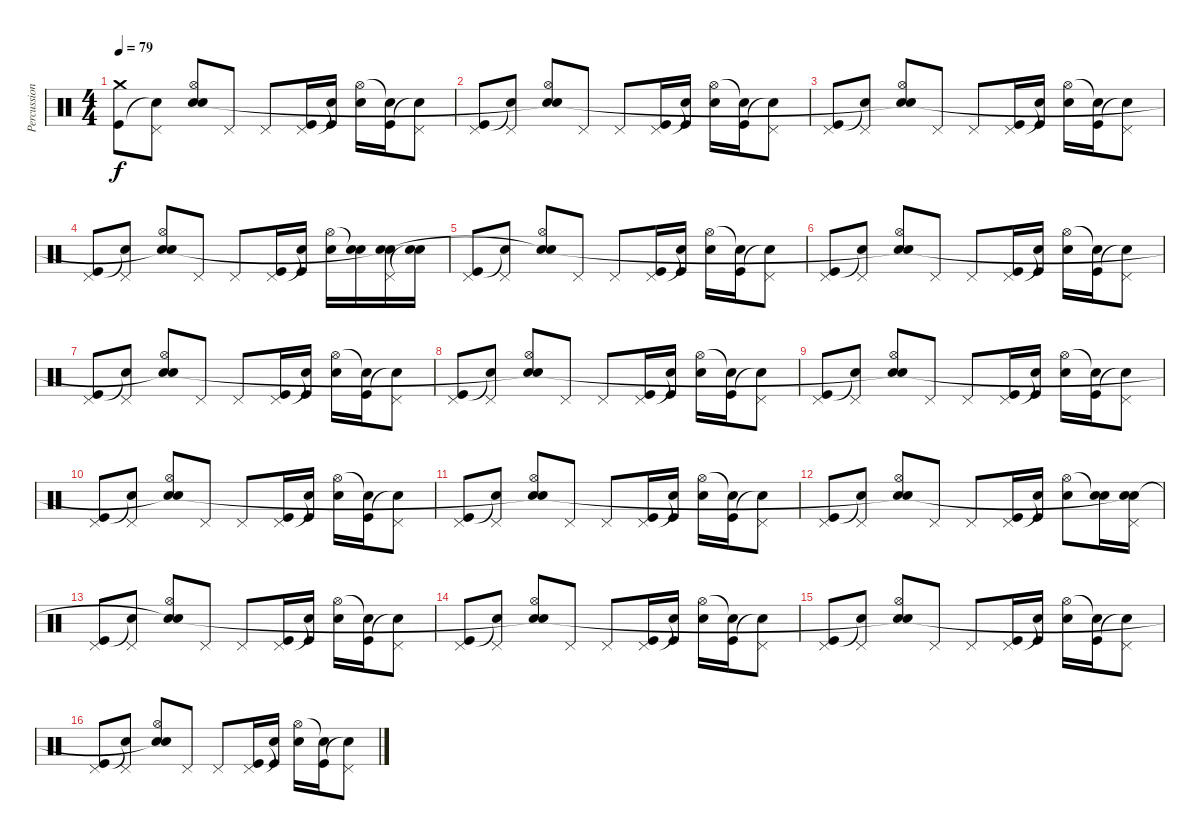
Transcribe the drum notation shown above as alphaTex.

\track ("Percussion" "Percussion") {instrument percussion}
\staff {score}
\articulation defaults
\ts (4 4)
\tempo 79
\clef neutral
\ks c
("Crash medium (hit)" "Kick (hit)").8{dy f} ("Pedal Hi-Hat (hit)" "Snare (hit)"{t}).8 ("Hi-Hat (open)" "Electric Snare (hit)" "Snare (hit)").8 "Pedal Hi-Hat (hit)".8 "Pedal Hi-Hat (hit)".8 ("Pedal Hi-Hat (hit)" "Kick (hit)").16 ("Snare (hit)"{t} "Kick (hit)").16 ("Hi-Hat (open)" "Electric Snare (hit)").16 ("Snare (hit)"{t} "Kick (hit)").16 ("Pedal Hi-Hat (hit)" "Snare (hit)"{t}).8 |
("Pedal Hi-Hat (hit)" "Kick (hit)").8 ("Pedal Hi-Hat (hit)" "Snare (hit)"{t}).8 ("Hi-Hat (open)" "Electric Snare (hit)" "Snare (hit)"{t}).8 "Pedal Hi-Hat (hit)".8 "Pedal Hi-Hat (hit)".8 ("Pedal Hi-Hat (hit)" "Kick (hit)").16 ("Snare (hit)"{t} "Kick (hit)").16 ("Hi-Hat (open)" "Electric Snare (hit)").16 ("Snare (hit)"{t} "Kick (hit)").16 ("Pedal Hi-Hat (hit)" "Snare (hit)"{t}).8 |
("Pedal Hi-Hat (hit)" "Kick (hit)").8 ("Pedal Hi-Hat (hit)" "Snare (hit)"{t}).8 ("Hi-Hat (open)" "Electric Snare (hit)" "Snare (hit)"{t}).8 "Pedal Hi-Hat (hit)".8 "Pedal Hi-Hat (hit)".8 ("Pedal Hi-Hat (hit)" "Kick (hit)").16 ("Snare (hit)"{t} "Kick (hit)").16 ("Hi-Hat (open)" "Electric Snare (hit)").16 ("Snare (hit)"{t} "Kick (hit)").16 ("Pedal Hi-Hat (hit)" "Snare (hit)"{t}).8 |
("Pedal Hi-Hat (hit)" "Kick (hit)").8 ("Pedal Hi-Hat (hit)" "Snare (hit)"{t}).8 ("Hi-Hat (open)" "Electric Snare (hit)" "Snare (hit)"{t}).8 "Pedal Hi-Hat (hit)".8 "Pedal Hi-Hat (hit)".8 ("Pedal Hi-Hat (hit)" "Kick (hit)").16 ("Snare (hit)"{t} "Kick (hit)").16 ("Hi-Hat (open)" "Electric Snare (hit)").16 ("Snare (hit)"{t} "Electric Snare (hit)").16 ("Pedal Hi-Hat (hit)" "Electric Snare (hit)" "Snare (hit)"{t}).16 ("Snare (hit)"{t} "Electric Snare (hit)").16 |
("Pedal Hi-Hat (hit)" "Kick (hit)").8 ("Pedal Hi-Hat (hit)" "Snare (hit)"{t}).8 ("Hi-Hat (open)" "Electric Snare (hit)" "Snare (hit)"{t}).8 "Pedal Hi-Hat (hit)".8 "Pedal Hi-Hat (hit)".8 ("Pedal Hi-Hat (hit)" "Kick (hit)").16 ("Snare (hit)"{t} "Kick (hit)").16 ("Hi-Hat (open)" "Electric Snare (hit)").16 ("Snare (hit)"{t} "Kick (hit)").16 ("Pedal Hi-Hat (hit)" "Snare (hit)"{t}).8 |
("Pedal Hi-Hat (hit)" "Kick (hit)").8 ("Pedal Hi-Hat (hit)" "Snare (hit)"{t}).8 ("Hi-Hat (open)" "Electric Snare (hit)" "Snare (hit)"{t}).8 "Pedal Hi-Hat (hit)".8 "Pedal Hi-Hat (hit)".8 ("Pedal Hi-Hat (hit)" "Kick (hit)").16 ("Snare (hit)"{t} "Kick (hit)").16 ("Hi-Hat (open)" "Electric Snare (hit)").16 ("Snare (hit)"{t} "Kick (hit)").16 ("Pedal Hi-Hat (hit)" "Snare (hit)"{t}).8 |
("Pedal Hi-Hat (hit)" "Kick (hit)").8 ("Pedal Hi-Hat (hit)" "Snare (hit)"{t}).8 ("Hi-Hat (open)" "Electric Snare (hit)" "Snare (hit)"{t}).8 "Pedal Hi-Hat (hit)".8 "Pedal Hi-Hat (hit)".8 ("Pedal Hi-Hat (hit)" "Kick (hit)").16 ("Snare (hit)"{t} "Kick (hit)").16 ("Hi-Hat (open)" "Electric Snare (hit)").16 ("Snare (hit)"{t} "Kick (hit)").16 ("Pedal Hi-Hat (hit)" "Snare (hit)"{t}).8 |
("Pedal Hi-Hat (hit)" "Kick (hit)").8 ("Pedal Hi-Hat (hit)" "Snare (hit)"{t}).8 ("Hi-Hat (open)" "Electric Snare (hit)" "Snare (hit)"{t}).8 "Pedal Hi-Hat (hit)".8 "Pedal Hi-Hat (hit)".8 ("Pedal Hi-Hat (hit)" "Kick (hit)").16 ("Snare (hit)"{t} "Kick (hit)").16 ("Hi-Hat (open)" "Electric Snare (hit)").16 ("Snare (hit)"{t} "Kick (hit)").16 ("Pedal Hi-Hat (hit)" "Snare (hit)"{t}).8 |
("Pedal Hi-Hat (hit)" "Kick (hit)").8 ("Pedal Hi-Hat (hit)" "Snare (hit)"{t}).8 ("Hi-Hat (open)" "Electric Snare (hit)" "Snare (hit)"{t}).8 "Pedal Hi-Hat (hit)".8 "Pedal Hi-Hat (hit)".8 ("Pedal Hi-Hat (hit)" "Kick (hit)").16 ("Snare (hit)"{t} "Kick (hit)").16 ("Hi-Hat (open)" "Electric Snare (hit)").16 ("Snare (hit)"{t} "Kick (hit)").16 ("Pedal Hi-Hat (hit)" "Snare (hit)"{t}).8 |
("Pedal Hi-Hat (hit)" "Kick (hit)").8 ("Pedal Hi-Hat (hit)" "Snare (hit)"{t}).8 ("Hi-Hat (open)" "Electric Snare (hit)" "Snare (hit)"{t}).8 "Pedal Hi-Hat (hit)".8 "Pedal Hi-Hat (hit)".8 ("Pedal Hi-Hat (hit)" "Kick (hit)").16 ("Snare (hit)"{t} "Kick (hit)").16 ("Hi-Hat (open)" "Electric Snare (hit)").16 ("Snare (hit)"{t} "Kick (hit)").16 ("Pedal Hi-Hat (hit)" "Snare (hit)"{t}).8 |
("Pedal Hi-Hat (hit)" "Kick (hit)").8 ("Pedal Hi-Hat (hit)" "Snare (hit)"{t}).8 ("Hi-Hat (open)" "Electric Snare (hit)" "Snare (hit)"{t}).8 "Pedal Hi-Hat (hit)".8 "Pedal Hi-Hat (hit)".8 ("Pedal Hi-Hat (hit)" "Kick (hit)").16 ("Snare (hit)"{t} "Kick (hit)").16 ("Hi-Hat (open)" "Electric Snare (hit)").16 ("Snare (hit)"{t} "Kick (hit)").16 ("Pedal Hi-Hat (hit)" "Snare (hit)"{t}).8 |
("Pedal Hi-Hat (hit)" "Kick (hit)").8 ("Pedal Hi-Hat (hit)" "Snare (hit)"{t}).8 ("Hi-Hat (open)" "Electric Snare (hit)" "Snare (hit)"{t}).8 "Pedal Hi-Hat (hit)".8 "Pedal Hi-Hat (hit)".8 ("Pedal Hi-Hat (hit)" "Kick (hit)").16 ("Snare (hit)"{t} "Kick (hit)").16 ("Hi-Hat (open)" "Electric Snare (hit)").8 ("Snare (hit)"{t} "Electric Snare (hit)").16 ("Pedal Hi-Hat (hit)" "Electric Snare (hit)" "Snare (hit)"{t}).16 |
("Pedal Hi-Hat (hit)" "Kick (hit)").8 ("Pedal Hi-Hat (hit)" "Snare (hit)"{t}).8 ("Hi-Hat (open)" "Electric Snare (hit)" "Snare (hit)"{t}).8 "Pedal Hi-Hat (hit)".8 "Pedal Hi-Hat (hit)".8 ("Pedal Hi-Hat (hit)" "Kick (hit)").16 ("Snare (hit)"{t} "Kick (hit)").16 ("Hi-Hat (open)" "Electric Snare (hit)").16 ("Snare (hit)"{t} "Kick (hit)").16 ("Pedal Hi-Hat (hit)" "Snare (hit)"{t}).8 |
("Pedal Hi-Hat (hit)" "Kick (hit)").8 ("Pedal Hi-Hat (hit)" "Snare (hit)"{t}).8 ("Hi-Hat (open)" "Electric Snare (hit)" "Snare (hit)"{t}).8 "Pedal Hi-Hat (hit)".8 "Pedal Hi-Hat (hit)".8 ("Pedal Hi-Hat (hit)" "Kick (hit)").16 ("Snare (hit)"{t} "Kick (hit)").16 ("Hi-Hat (open)" "Electric Snare (hit)").16 ("Snare (hit)"{t} "Kick (hit)").16 ("Pedal Hi-Hat (hit)" "Snare (hit)"{t}).8 |
("Pedal Hi-Hat (hit)" "Kick (hit)").8 ("Pedal Hi-Hat (hit)" "Snare (hit)"{t}).8 ("Hi-Hat (open)" "Electric Snare (hit)" "Snare (hit)"{t}).8 "Pedal Hi-Hat (hit)".8 "Pedal Hi-Hat (hit)".8 ("Pedal Hi-Hat (hit)" "Kick (hit)").16 ("Snare (hit)"{t} "Kick (hit)").16 ("Hi-Hat (open)" "Electric Snare (hit)").16 ("Snare (hit)"{t} "Kick (hit)").16 ("Pedal Hi-Hat (hit)" "Snare (hit)"{t}).8 |
("Pedal Hi-Hat (hit)" "Kick (hit)").8 ("Pedal Hi-Hat (hit)" "Snare (hit)"{t}).8 ("Hi-Hat (open)" "Electric Snare (hit)" "Snare (hit)"{t}).8 "Pedal Hi-Hat (hit)".8 "Pedal Hi-Hat (hit)".8 ("Pedal Hi-Hat (hit)" "Kick (hit)").16 ("Snare (hit)"{t} "Kick (hit)").16 ("Hi-Hat (open)" "Electric Snare (hit)").16 ("Snare (hit)"{t} "Kick (hit)").16 ("Pedal Hi-Hat (hit)" "Snare (hit)"{t}).8
